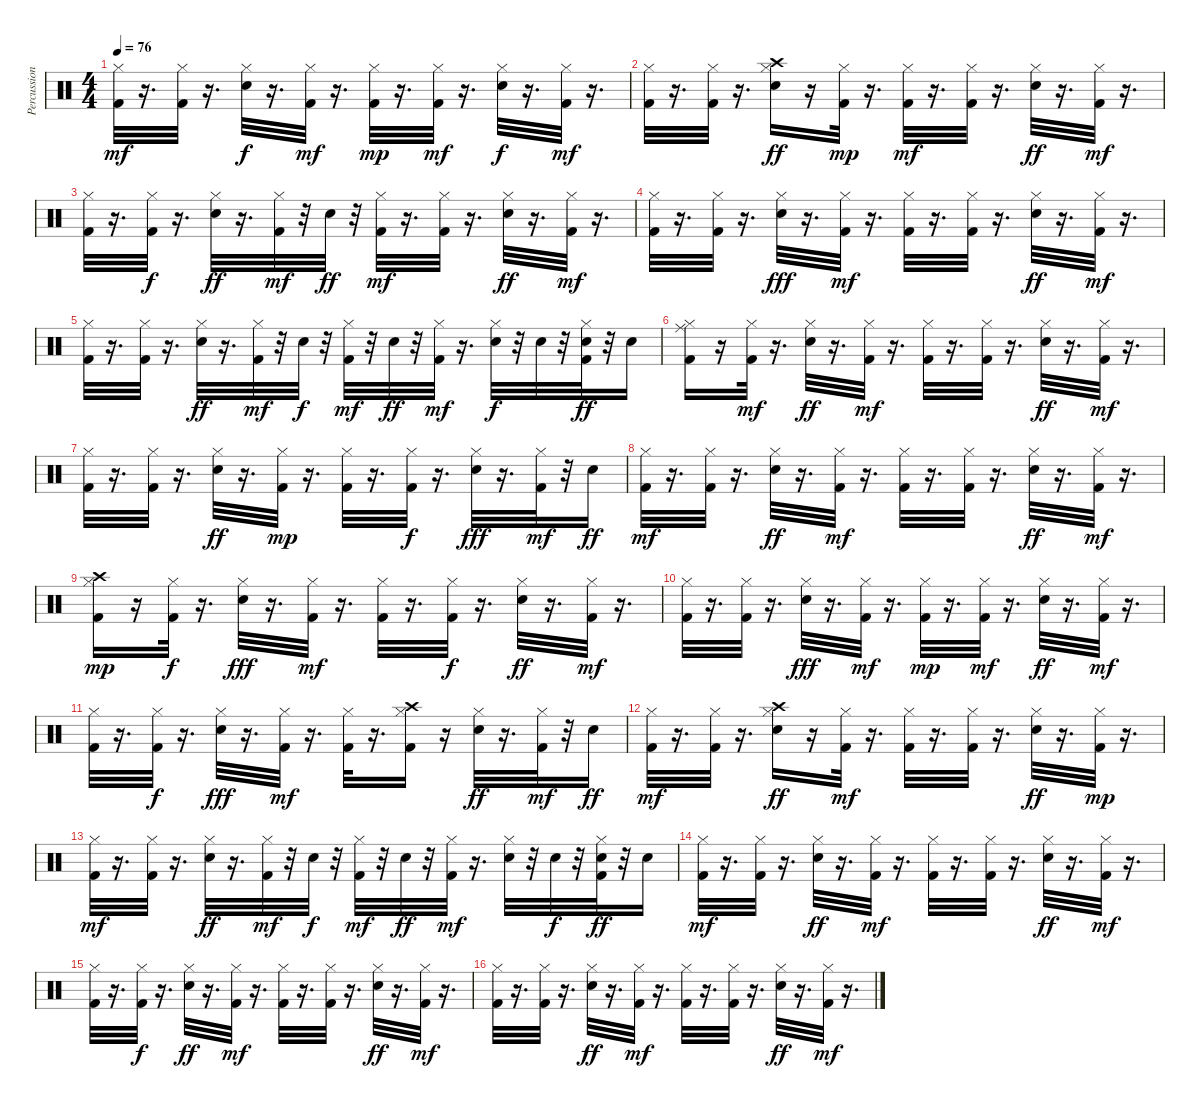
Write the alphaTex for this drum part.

\track ("Percussion Fill" "Percussion") {instrument percussion}
\staff {score}
\articulation defaults
\ts (4 4)
\tempo 76
\clef neutral
\ks c
("Kick (hit) 2" "Hi-Hat (closed)").32{dy mf} r.16{d} ("Kick (hit) 2" "Hi-Hat (closed)").32 r.16{d} ("Snare (hit) 2" "Hi-Hat (closed)").32{dy f} r.16{d} ("Kick (hit) 2" "Hi-Hat (closed)").32{dy mf} r.16{d} ("Kick (hit) 2" "Hi-Hat (closed)").32{dy mp} r.16{d} ("Kick (hit) 2" "Hi-Hat (closed)").32{dy mf} r.16{d} ("Snare (hit) 2" "Hi-Hat (closed)").32{dy f} r.16{d} ("Kick (hit) 2" "Hi-Hat (closed)").32{dy mf} r.16{d} |
("Kick (hit) 2" "Hi-Hat (closed)").32 r.16{d} ("Kick (hit) 2" "Hi-Hat (closed)").32 r.16{d} ("Snare (hit) 2" "Hi-Hat (closed)" "Crash high (hit)").16{dy ff} r.16 ("Kick (hit) 2" "Hi-Hat (closed)").32{dy mp} r.16{d} ("Kick (hit) 2" "Hi-Hat (closed)").32{dy mf} r.16{d} ("Kick (hit) 2" "Hi-Hat (closed)").32 r.16{d} ("Snare (hit) 2" "Hi-Hat (closed)").32{dy ff} r.16{d} ("Kick (hit) 2" "Hi-Hat (closed)").32{dy mf} r.16{d} |
("Kick (hit) 2" "Hi-Hat (closed)").32 r.16{d} ("Kick (hit) 2" "Hi-Hat (closed)").32{dy f} r.16{d} ("Snare (hit) 2" "Hi-Hat (closed)").32{dy ff} r.16{d} ("Kick (hit) 2" "Hi-Hat (closed)").32{dy mf} r.32 "Snare (hit) 2".32{dy ff} r.32 ("Kick (hit) 2" "Hi-Hat (closed)").32{dy mf} r.16{d} ("Kick (hit) 2" "Hi-Hat (closed)").32 r.16{d} ("Snare (hit) 2" "Hi-Hat (closed)").32{dy ff} r.16{d} ("Kick (hit) 2" "Hi-Hat (closed)").32{dy mf} r.16{d} |
("Kick (hit) 2" "Hi-Hat (closed)").32 r.16{d} ("Kick (hit) 2" "Hi-Hat (closed)").32 r.16{d} ("Snare (hit) 2" "Hi-Hat (closed)").32{dy fff} r.16{d} ("Kick (hit) 2" "Hi-Hat (closed)").32{dy mf} r.16{d} ("Kick (hit) 2" "Hi-Hat (closed)").32 r.16{d} ("Kick (hit) 2" "Hi-Hat (closed)").32 r.16{d} ("Snare (hit) 2" "Hi-Hat (closed)").32{dy ff} r.16{d} ("Kick (hit) 2" "Hi-Hat (closed)").32{dy mf} r.16{d} |
("Kick (hit) 2" "Hi-Hat (closed)").32 r.16{d} ("Kick (hit) 2" "Hi-Hat (closed)").32 r.16{d} ("Snare (hit) 2" "Hi-Hat (closed)").32{dy ff} r.16{d} ("Kick (hit) 2" "Hi-Hat (closed)").32{dy mf} r.32 "Snare (hit) 2".32{dy f} r.32 ("Kick (hit) 2" "Hi-Hat (closed)").32{dy mf} r.32 "Snare (hit) 2".32{dy ff} r.32 ("Kick (hit) 2" "Hi-Hat (closed)").32{dy mf} r.16{d} ("Snare (hit) 2" "Hi-Hat (closed)").32{dy f} r.32 "Snare (hit) 2".32 r.32 ("Kick (hit) 2" "Snare (hit) 2" "Hi-Hat (closed)").32{dy ff} r.32 "Snare (hit) 2".16 |
("Kick (hit) 2" "Hi-Hat (closed)" "Ride (middle)").16 r.16 ("Kick (hit) 2" "Hi-Hat (closed)").32{dy mf} r.16{d} ("Snare (hit) 2" "Hi-Hat (closed)").32{dy ff} r.16{d} ("Kick (hit) 2" "Hi-Hat (closed)").32{dy mf} r.16{d} ("Kick (hit) 2" "Hi-Hat (closed)").32 r.16{d} ("Kick (hit) 2" "Hi-Hat (closed)").32 r.16{d} ("Snare (hit) 2" "Hi-Hat (closed)").32{dy ff} r.16{d} ("Kick (hit) 2" "Hi-Hat (closed)").32{dy mf} r.16{d} |
("Kick (hit) 2" "Hi-Hat (closed)").32 r.16{d} ("Kick (hit) 2" "Hi-Hat (closed)").32 r.16{d} ("Snare (hit) 2" "Hi-Hat (closed)").32{dy ff} r.16{d} ("Kick (hit) 2" "Hi-Hat (closed)").32{dy mp} r.16{d} ("Kick (hit) 2" "Hi-Hat (closed)").32 r.16{d} ("Kick (hit) 2" "Hi-Hat (closed)").32{dy f} r.16{d} ("Snare (hit) 2" "Hi-Hat (closed)").32{dy fff} r.16{d} ("Kick (hit) 2" "Hi-Hat (closed)").32{dy mf} r.32 "Snare (hit) 2".16{dy ff} |
("Kick (hit) 2" "Hi-Hat (closed)").32{dy mf} r.16{d} ("Kick (hit) 2" "Hi-Hat (closed)").32 r.16{d} ("Snare (hit) 2" "Hi-Hat (closed)").32{dy ff} r.16{d} ("Kick (hit) 2" "Hi-Hat (closed)").32{dy mf} r.16{d} ("Kick (hit) 2" "Hi-Hat (closed)").32 r.16{d} ("Kick (hit) 2" "Hi-Hat (closed)").32 r.16{d} ("Snare (hit) 2" "Hi-Hat (closed)").32{dy ff} r.16{d} ("Kick (hit) 2" "Hi-Hat (closed)").32{dy mf} r.16{d} |
("Kick (hit) 2" "Hi-Hat (closed)" "Crash high (hit)").16{dy mp} r.16 ("Kick (hit) 2" "Hi-Hat (closed)").32{dy f} r.16{d} ("Snare (hit) 2" "Hi-Hat (closed)").32{dy fff} r.16{d} ("Kick (hit) 2" "Hi-Hat (closed)").32{dy mf} r.16{d} ("Kick (hit) 2" "Hi-Hat (closed)").32 r.16{d} ("Kick (hit) 2" "Hi-Hat (closed)").32{dy f} r.16{d} ("Snare (hit) 2" "Hi-Hat (closed)").32{dy ff} r.16{d} ("Kick (hit) 2" "Hi-Hat (closed)").32{dy mf} r.16{d} |
("Kick (hit) 2" "Hi-Hat (closed)").32 r.16{d} ("Kick (hit) 2" "Hi-Hat (closed)").32 r.16{d} ("Snare (hit) 2" "Hi-Hat (closed)").32{dy fff} r.16{d} ("Kick (hit) 2" "Hi-Hat (closed)").32{dy mf} r.16{d} ("Kick (hit) 2" "Hi-Hat (closed)").32{dy mp} r.16{d} ("Kick (hit) 2" "Hi-Hat (closed)").32{dy mf} r.16{d} ("Snare (hit) 2" "Hi-Hat (closed)").32{dy ff} r.16{d} ("Kick (hit) 2" "Hi-Hat (closed)").32{dy mf} r.16{d} |
("Kick (hit) 2" "Hi-Hat (closed)").32 r.16{d} ("Kick (hit) 2" "Hi-Hat (closed)").32{dy f} r.16{d} ("Snare (hit) 2" "Hi-Hat (closed)").32{dy fff} r.16{d} ("Kick (hit) 2" "Hi-Hat (closed)").32{dy mf} r.16{d} ("Kick (hit) 2" "Hi-Hat (closed)").32 r.16{d} ("Kick (hit) 2" "Hi-Hat (closed)" "Crash high (hit)").16 r.16 ("Snare (hit) 2" "Hi-Hat (closed)").32{dy ff} r.16{d} ("Kick (hit) 2" "Hi-Hat (closed)").32{dy mf} r.32 "Snare (hit) 2".16{dy ff} |
("Kick (hit) 2" "Hi-Hat (closed)").32{dy mf} r.16{d} ("Kick (hit) 2" "Hi-Hat (closed)").32 r.16{d} ("Snare (hit) 2" "Hi-Hat (closed)" "Crash high (hit)").16{dy ff} r.16 ("Kick (hit) 2" "Hi-Hat (closed)").32{dy mf} r.16{d} ("Kick (hit) 2" "Hi-Hat (closed)").32 r.16{d} ("Kick (hit) 2" "Hi-Hat (closed)").32 r.16{d} ("Snare (hit) 2" "Hi-Hat (closed)").32{dy ff} r.16{d} ("Kick (hit) 2" "Hi-Hat (closed)").32{dy mp} r.16{d} |
("Kick (hit) 2" "Hi-Hat (closed)").32{dy mf} r.16{d} ("Kick (hit) 2" "Hi-Hat (closed)").32 r.16{d} ("Snare (hit) 2" "Hi-Hat (closed)").32{dy ff} r.16{d} ("Kick (hit) 2" "Hi-Hat (closed)").32{dy mf} r.32 "Snare (hit) 2".32{dy f} r.32 ("Kick (hit) 2" "Hi-Hat (closed)").32{dy mf} r.32 "Snare (hit) 2".32{dy ff} r.32 ("Kick (hit) 2" "Hi-Hat (closed)").32{dy mf} r.16{d} ("Snare (hit) 2" "Hi-Hat (closed)").32 r.32 "Snare (hit) 2".32{dy f} r.32 ("Kick (hit) 2" "Snare (hit) 2" "Hi-Hat (closed)").32{dy ff} r.32 "Snare (hit) 2".16 |
("Kick (hit) 2" "Hi-Hat (closed)").32{dy mf} r.16{d} ("Kick (hit) 2" "Hi-Hat (closed)").32 r.16{d} ("Snare (hit) 2" "Hi-Hat (closed)").32{dy ff} r.16{d} ("Kick (hit) 2" "Hi-Hat (closed)").32{dy mf} r.16{d} ("Kick (hit) 2" "Hi-Hat (closed)").32 r.16{d} ("Kick (hit) 2" "Hi-Hat (closed)").32 r.16{d} ("Snare (hit) 2" "Hi-Hat (closed)").32{dy ff} r.16{d} ("Kick (hit) 2" "Hi-Hat (closed)").32{dy mf} r.16{d} |
("Kick (hit) 2" "Hi-Hat (closed)").32 r.16{d} ("Kick (hit) 2" "Hi-Hat (closed)").32{dy f} r.16{d} ("Snare (hit) 2" "Hi-Hat (closed)").32{dy ff} r.16{d} ("Kick (hit) 2" "Hi-Hat (closed)").32{dy mf} r.16{d} ("Kick (hit) 2" "Hi-Hat (closed)").32 r.16{d} ("Kick (hit) 2" "Hi-Hat (closed)").32 r.16{d} ("Snare (hit) 2" "Hi-Hat (closed)").32{dy ff} r.16{d} ("Kick (hit) 2" "Hi-Hat (closed)").32{dy mf} r.16{d} |
("Kick (hit) 2" "Hi-Hat (closed)").32 r.16{d} ("Kick (hit) 2" "Hi-Hat (closed)").32 r.16{d} ("Snare (hit) 2" "Hi-Hat (closed)").32{dy ff} r.16{d} ("Kick (hit) 2" "Hi-Hat (closed)").32{dy mf} r.16{d} ("Kick (hit) 2" "Hi-Hat (closed)").32 r.16{d} ("Kick (hit) 2" "Hi-Hat (closed)").32 r.16{d} ("Snare (hit) 2" "Hi-Hat (closed)").32{dy ff} r.16{d} ("Kick (hit) 2" "Hi-Hat (closed)").32{dy mf} r.16{d}
